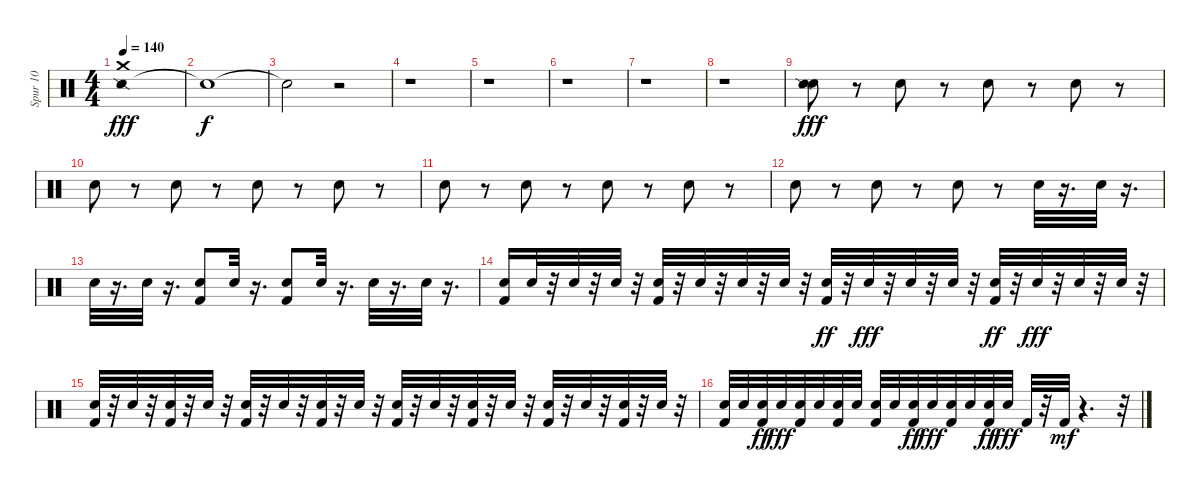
\track ("Spur 10" "Spur 10") {instrument percussion}
\staff {score}
\articulation defaults
\ts (4 4)
\tempo 140
\clef neutral
\ks c
("Snare (side stick) 2" "Crash medium (hit)").1{dy fff} |
"Snare (hit)"{t}.1{dy f} |
"Snare (hit)"{t}.2 r.2 |
r.1 |
r.1 |
r.1 |
r.1 |
r.1 |
("Electric Snare (hit)" "Snare (side stick) 2").8{dy fff} r.8 "Electric Snare (hit)".8 r.8 "Electric Snare (hit)".8 r.8 "Electric Snare (hit)".8 r.8 |
"Electric Snare (hit)".8 r.8 "Electric Snare (hit)".8 r.8 "Electric Snare (hit)".8 r.8 "Electric Snare (hit)".8 r.8 |
"Electric Snare (hit)".8 r.8 "Electric Snare (hit)".8 r.8 "Electric Snare (hit)".8 r.8 "Electric Snare (hit)".8 r.8 |
"Electric Snare (hit)".8 r.8 "Electric Snare (hit)".8 r.8 "Electric Snare (hit)".8 r.8 "Electric Snare (hit)".32 r.16{d} "Electric Snare (hit)".32 r.16{d} |
"Electric Snare (hit)".32 r.16{d} "Electric Snare (hit)".32 r.16{d} ("Electric Snare (hit)" "Kick (hit) 2").8 "Electric Snare (hit)".32 r.16{d} ("Electric Snare (hit)" "Kick (hit) 2").8 "Electric Snare (hit)".32 r.16{d} "Electric Snare (hit)".32 r.16{d} "Electric Snare (hit)".32 r.16{d} |
("Electric Snare (hit)" "Kick (hit) 2").16 "Electric Snare (hit)".32 r.32 "Electric Snare (hit)".32 r.32 "Electric Snare (hit)".32 r.32 ("Electric Snare (hit)" "Kick (hit) 2").32 r.32 "Electric Snare (hit)".32 r.32 "Electric Snare (hit)".32 r.32 "Electric Snare (hit)".32 r.32 ("Electric Snare (hit)" "Kick (hit) 2").32{dy ff} r.32 "Electric Snare (hit)".32{dy fff} r.32 "Electric Snare (hit)".32 r.32 "Electric Snare (hit)".32 r.32 ("Electric Snare (hit)" "Kick (hit) 2").32{dy ff} r.32 "Electric Snare (hit)".32{dy fff} r.32 "Electric Snare (hit)".32 r.32 "Electric Snare (hit)".32 r.32 |
("Electric Snare (hit)" "Kick (hit) 2").32 r.32 "Electric Snare (hit)".32 r.32 ("Electric Snare (hit)" "Kick (hit) 2").32 r.32 "Electric Snare (hit)".32 r.32 ("Electric Snare (hit)" "Kick (hit) 2").32 r.32 "Electric Snare (hit)".32 r.32 ("Electric Snare (hit)" "Kick (hit) 2").32 r.32 "Electric Snare (hit)".32 r.32 ("Electric Snare (hit)" "Kick (hit) 2").32 r.32 "Electric Snare (hit)".32 r.32 ("Electric Snare (hit)" "Kick (hit) 2").32 r.32 "Electric Snare (hit)".32 r.32 ("Electric Snare (hit)" "Kick (hit) 2").32 r.32 "Electric Snare (hit)".32 r.32 ("Electric Snare (hit)" "Kick (hit) 2").32 r.32 "Electric Snare (hit)".32 r.32 |
("Electric Snare (hit)" "Kick (hit) 2").32 "Electric Snare (hit)".32 ("Electric Snare (hit)" "Kick (hit) 2").32{dy ff} "Electric Snare (hit)".32{dy fff} ("Electric Snare (hit)" "Kick (hit) 2").32 "Electric Snare (hit)".32 ("Electric Snare (hit)" "Kick (hit) 2").32 "Electric Snare (hit)".32 ("Electric Snare (hit)" "Kick (hit) 2").32 "Electric Snare (hit)".32 ("Electric Snare (hit)" "Kick (hit) 2").32{dy ff} "Electric Snare (hit)".32{dy fff} ("Electric Snare (hit)" "Kick (hit) 2").32 "Electric Snare (hit)".32 ("Electric Snare (hit)" "Kick (hit) 2").32{dy ff} "Electric Snare (hit)".32{dy fff} "Kick (hit) 2".32 r.32 "Kick (hit) 2".32{dy mf} r.4{d} r.32
